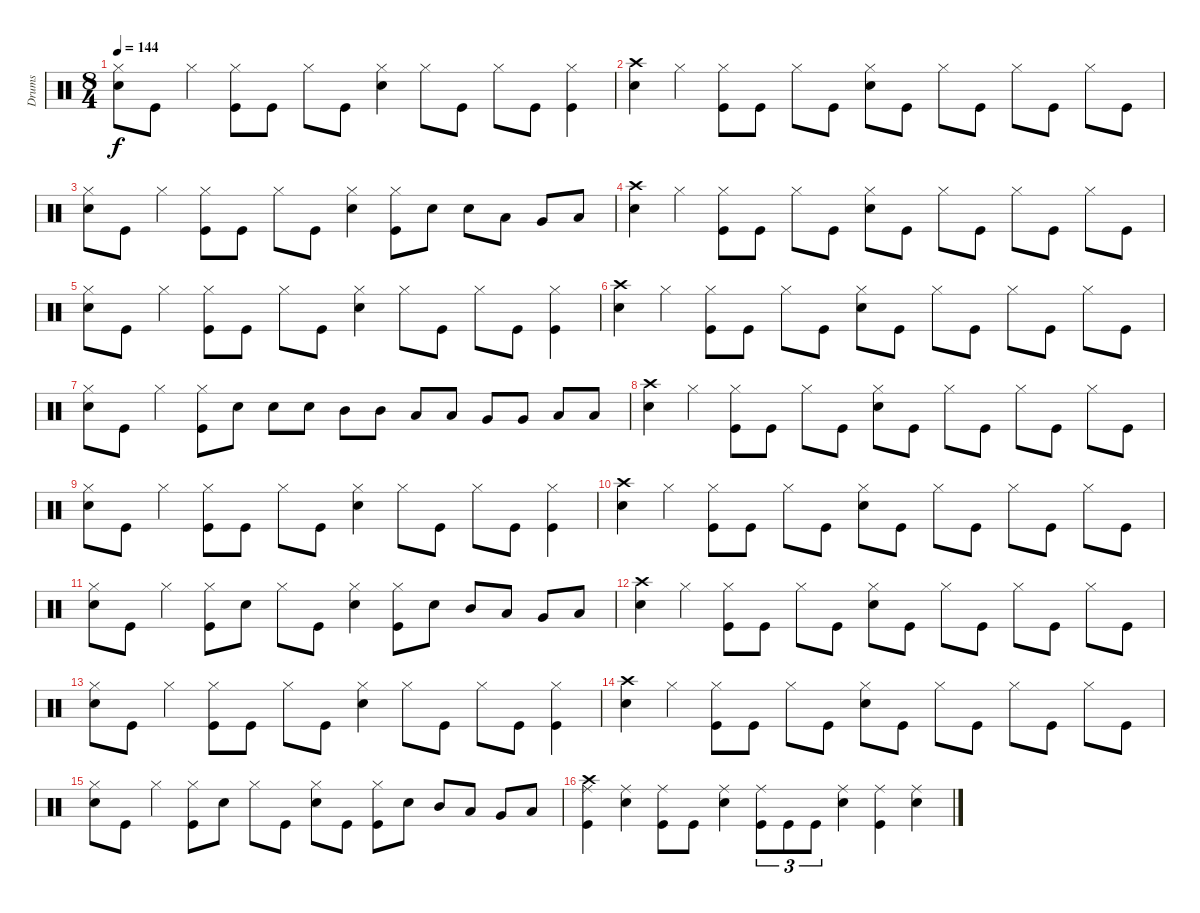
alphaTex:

\track ("Drums" "Drums") {instrument percussion}
\staff {score}
\articulation defaults
\ts (8 4)
\tempo 144
\clef neutral
\ks c
("Hi-Hat (closed)" "Snare (hit) 2").8{dy f} "Kick (hit)".8 "Hi-Hat (closed)".4 ("Hi-Hat (closed)" "Kick (hit)").8 "Kick (hit)".8 "Hi-Hat (closed)".8 "Kick (hit)".8 ("Hi-Hat (closed)" "Snare (hit) 2").4 "Hi-Hat (closed)".8 "Kick (hit)".8 "Hi-Hat (closed)".8 "Kick (hit)".8 ("Hi-Hat (closed)" "Kick (hit)").4 |
("Crash high (hit)" "Snare (hit) 2").4 "Hi-Hat (closed)".4 ("Hi-Hat (closed)" "Kick (hit)").8 "Kick (hit)".8 "Hi-Hat (closed)".8 "Kick (hit)".8 ("Hi-Hat (closed)" "Snare (hit) 2").8 "Kick (hit)".8 "Hi-Hat (closed)".8 "Kick (hit)".8 "Hi-Hat (closed)".8 "Kick (hit)".8 "Hi-Hat (closed)".8 "Kick (hit)".8 |
("Hi-Hat (closed)" "Snare (hit) 2").8 "Kick (hit)".8 "Hi-Hat (closed)".4 ("Hi-Hat (closed)" "Kick (hit)").8 "Kick (hit)".8 "Hi-Hat (closed)".8 "Kick (hit)".8 ("Hi-Hat (closed)" "Snare (hit) 2").4 ("Hi-Hat (closed)" "Kick (hit)").8 "Snare (hit) 2".8 "Snare (hit) 2".8 "Low Tom (hit)".8 "Very Low Tom (hit)".8 "Low Floor Tom (hit)".8 |
("Crash high (hit)" "Snare (hit) 2").4 "Hi-Hat (closed)".4 ("Hi-Hat (closed)" "Kick (hit)").8 "Kick (hit)".8 "Hi-Hat (closed)".8 "Kick (hit)".8 ("Hi-Hat (closed)" "Snare (hit) 2").8 "Kick (hit)".8 "Hi-Hat (closed)".8 "Kick (hit)".8 "Hi-Hat (closed)".8 "Kick (hit)".8 "Hi-Hat (closed)".8 "Kick (hit)".8 |
("Hi-Hat (closed)" "Snare (hit) 2").8 "Kick (hit)".8 "Hi-Hat (closed)".4 ("Hi-Hat (closed)" "Kick (hit)").8 "Kick (hit)".8 "Hi-Hat (closed)".8 "Kick (hit)".8 ("Hi-Hat (closed)" "Snare (hit) 2").4 "Hi-Hat (closed)".8 "Kick (hit)".8 "Hi-Hat (closed)".8 "Kick (hit)".8 ("Hi-Hat (closed)" "Kick (hit)").4 |
("Crash high (hit)" "Snare (hit) 2").4 "Hi-Hat (closed)".4 ("Hi-Hat (closed)" "Kick (hit)").8 "Kick (hit)".8 "Hi-Hat (closed)".8 "Kick (hit)".8 ("Hi-Hat (closed)" "Snare (hit) 2").8 "Kick (hit)".8 "Hi-Hat (closed)".8 "Kick (hit)".8 "Hi-Hat (closed)".8 "Kick (hit)".8 "Hi-Hat (closed)".8 "Kick (hit)".8 |
("Hi-Hat (closed)" "Snare (hit) 2").8 "Kick (hit)".8 "Hi-Hat (closed)".4 ("Hi-Hat (closed)" "Kick (hit)").8 "Snare (hit) 2".8 "Snare (hit) 2".8 "Snare (hit) 2".8 "Mid Tom (hit)".8 "Mid Tom (hit)".8 "Low Tom (hit)".8 "Low Tom (hit)".8 "Very Low Tom (hit)".8 "Very Low Tom (hit)".8 "Low Floor Tom (hit)".8 "Low Floor Tom (hit)".8 |
("Crash high (hit)" "Snare (hit) 2").4 "Hi-Hat (closed)".4 ("Hi-Hat (closed)" "Kick (hit)").8 "Kick (hit)".8 "Hi-Hat (closed)".8 "Kick (hit)".8 ("Hi-Hat (closed)" "Snare (hit) 2").8 "Kick (hit)".8 "Hi-Hat (closed)".8 "Kick (hit)".8 "Hi-Hat (closed)".8 "Kick (hit)".8 "Hi-Hat (closed)".8 "Kick (hit)".8 |
("Hi-Hat (closed)" "Snare (hit) 2").8 "Kick (hit)".8 "Hi-Hat (closed)".4 ("Hi-Hat (closed)" "Kick (hit)").8 "Kick (hit)".8 "Hi-Hat (closed)".8 "Kick (hit)".8 ("Hi-Hat (closed)" "Snare (hit) 2").4 "Hi-Hat (closed)".8 "Kick (hit)".8 "Hi-Hat (closed)".8 "Kick (hit)".8 ("Hi-Hat (closed)" "Kick (hit)").4 |
("Crash high (hit)" "Snare (hit) 2").4 "Hi-Hat (closed)".4 ("Hi-Hat (closed)" "Kick (hit)").8 "Kick (hit)".8 "Hi-Hat (closed)".8 "Kick (hit)".8 ("Hi-Hat (closed)" "Snare (hit) 2").8 "Kick (hit)".8 "Hi-Hat (closed)".8 "Kick (hit)".8 "Hi-Hat (closed)".8 "Kick (hit)".8 "Hi-Hat (closed)".8 "Kick (hit)".8 |
("Hi-Hat (closed)" "Snare (hit) 2").8 "Kick (hit)".8 "Hi-Hat (closed)".4 ("Hi-Hat (closed)" "Kick (hit)").8 "Snare (hit) 2".8 "Hi-Hat (closed)".8 "Kick (hit)".8 ("Hi-Hat (closed)" "Snare (hit) 2").4 ("Hi-Hat (closed)" "Kick (hit)").8 "Snare (hit) 2".8 "Mid Tom (hit)".8 "Low Tom (hit)".8 "Very Low Tom (hit)".8 "Low Floor Tom (hit)".8 |
("Crash high (hit)" "Snare (hit) 2").4 "Hi-Hat (closed)".4 ("Hi-Hat (closed)" "Kick (hit)").8 "Kick (hit)".8 "Hi-Hat (closed)".8 "Kick (hit)".8 ("Hi-Hat (closed)" "Snare (hit) 2").8 "Kick (hit)".8 "Hi-Hat (closed)".8 "Kick (hit)".8 "Hi-Hat (closed)".8 "Kick (hit)".8 "Hi-Hat (closed)".8 "Kick (hit)".8 |
("Hi-Hat (closed)" "Snare (hit) 2").8 "Kick (hit)".8 "Hi-Hat (closed)".4 ("Hi-Hat (closed)" "Kick (hit)").8 "Kick (hit)".8 "Hi-Hat (closed)".8 "Kick (hit)".8 ("Hi-Hat (closed)" "Snare (hit) 2").4 "Hi-Hat (closed)".8 "Kick (hit)".8 "Hi-Hat (closed)".8 "Kick (hit)".8 ("Hi-Hat (closed)" "Kick (hit)").4 |
("Crash high (hit)" "Snare (hit) 2").4 "Hi-Hat (closed)".4 ("Hi-Hat (closed)" "Kick (hit)").8 "Kick (hit)".8 "Hi-Hat (closed)".8 "Kick (hit)".8 ("Hi-Hat (closed)" "Snare (hit) 2").8 "Kick (hit)".8 "Hi-Hat (closed)".8 "Kick (hit)".8 "Hi-Hat (closed)".8 "Kick (hit)".8 "Hi-Hat (closed)".8 "Kick (hit)".8 |
("Hi-Hat (closed)" "Snare (hit) 2").8 "Kick (hit)".8 "Hi-Hat (closed)".4 ("Hi-Hat (closed)" "Kick (hit)").8 "Snare (hit) 2".8 "Hi-Hat (closed)".8 "Kick (hit)".8 ("Hi-Hat (closed)" "Snare (hit) 2").8 "Kick (hit)".8 ("Hi-Hat (closed)" "Kick (hit)").8 "Snare (hit) 2".8 "Mid Tom (hit)".8 "Low Tom (hit)".8 "Very Low Tom (hit)".8 "Low Floor Tom (hit)".8 |
("Crash high (hit)" "Ride (middle)" "Kick (hit)").4 ("Ride (middle)" "Snare (hit) 2").4 ("Ride (middle)" "Kick (hit)").8 "Kick (hit)".8 ("Ride (middle)" "Snare (hit) 2").4 ("Ride (middle)" "Kick (hit)").8{tu (3 2)} "Kick (hit)".8{tu (3 2)} "Kick (hit)".8{tu (3 2)} ("Ride (middle)" "Snare (hit) 2").4 ("Ride (middle)" "Kick (hit)").4 ("Ride (middle)" "Snare (hit) 2").4
